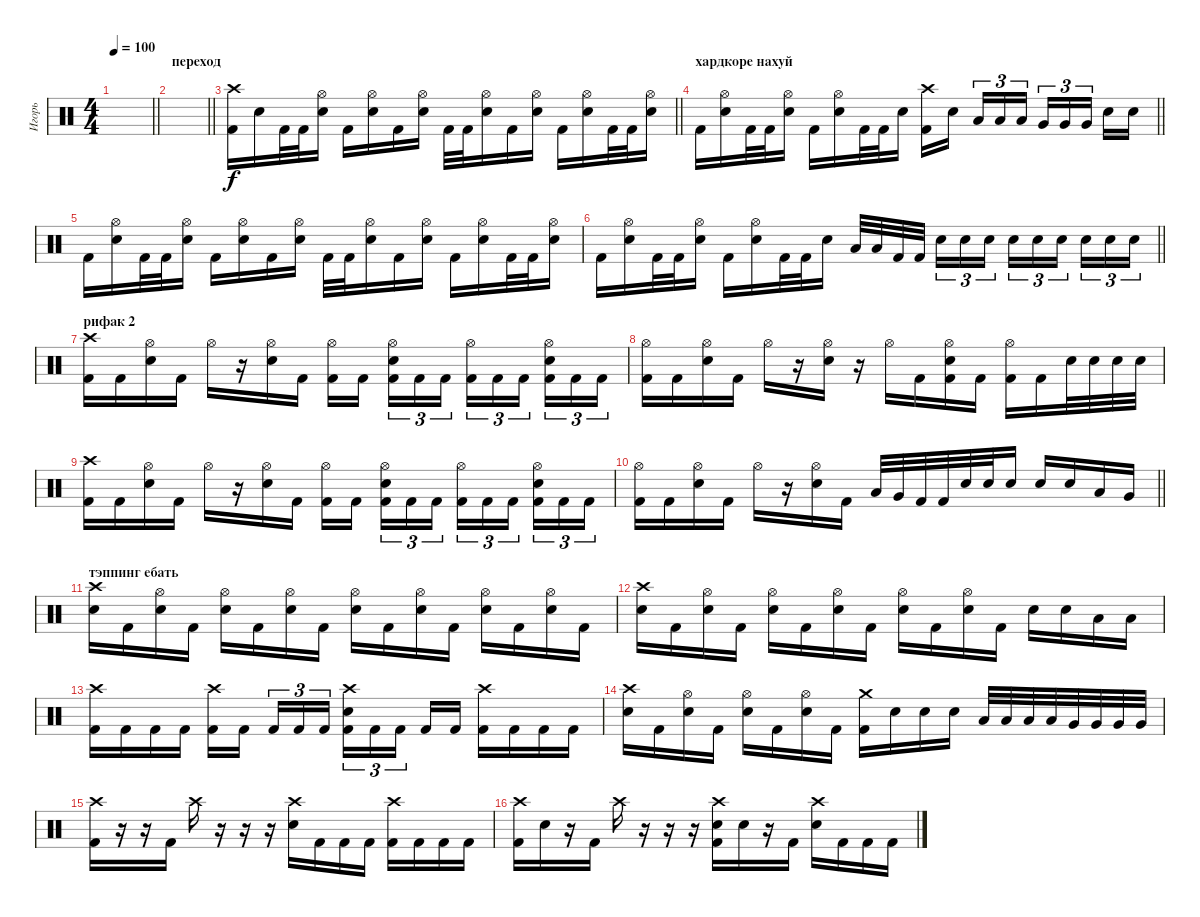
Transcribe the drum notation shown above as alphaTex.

\track ("Игорь" "Игорь") {instrument percussion}
\staff {score}
\articulation defaults
\ts (4 4)
\tempo 100
\clef neutral
\barLineRight lightlight
\ks c
|
\section ("" "переход")
\barLineRight lightlight
|
\barLineRight lightlight
("Crash high (hit)" "Kick (hit) 2").16 "Electric Snare (hit)".16 "Kick (hit) 2".32 "Kick (hit) 2".32 ("Hi-Hat (open)" "Electric Snare (hit)").16 "Kick (hit) 2".16 ("Hi-Hat (open)" "Electric Snare (hit)").16 "Kick (hit) 2".16 ("Hi-Hat (open)" "Electric Snare (hit)").16 "Kick (hit) 2".32 "Kick (hit) 2".32 ("Hi-Hat (open)" "Electric Snare (hit)").16 "Kick (hit) 2".16 ("Hi-Hat (open)" "Electric Snare (hit)").16 "Kick (hit) 2".16 ("Hi-Hat (open)" "Electric Snare (hit)").16 "Kick (hit) 2".32 "Kick (hit) 2".32 ("Hi-Hat (open)" "Electric Snare (hit)").16 |
\section ("" "хардкоре нахуй")
\barLineRight lightlight "Kick (hit) 2".16
("Hi-Hat (open)" "Electric Snare (hit)").16 "Kick (hit) 2".32 "Kick (hit) 2".32 ("Hi-Hat (open)" "Electric Snare (hit)").16 "Kick (hit) 2".16 ("Hi-Hat (open)" "Electric Snare (hit)").16 "Kick (hit) 2".32 "Kick (hit) 2".32 "Electric Snare (hit)".16 ("Crash high (hit)" "Kick (hit) 2").16 "Electric Snare (hit)".16{beam splitsecondary} "Low Tom (hit)".16{tu (3 2)} "Low Tom (hit)".16{tu (3 2)} "Low Tom (hit)".16{tu (3 2)} "Very Low Tom (hit)".16{tu (3 2)} "Very Low Tom (hit)".16{tu (3 2)} "Very Low Tom (hit)".16{tu (3 2) beam splitsecondary} "Electric Snare (hit)".16 "Electric Snare (hit)".16 |
"Kick (hit) 2".16 ("Hi-Hat (open)" "Electric Snare (hit)").16 "Kick (hit) 2".32 "Kick (hit) 2".32 ("Hi-Hat (open)" "Electric Snare (hit)").16 "Kick (hit) 2".16 ("Hi-Hat (open)" "Electric Snare (hit)").16 "Kick (hit) 2".16 ("Hi-Hat (open)" "Electric Snare (hit)").16 "Kick (hit) 2".32 "Kick (hit) 2".32 ("Hi-Hat (open)" "Electric Snare (hit)").16 "Kick (hit) 2".16 ("Hi-Hat (open)" "Electric Snare (hit)").16 "Kick (hit) 2".16 ("Hi-Hat (open)" "Electric Snare (hit)").16 "Kick (hit) 2".32 "Kick (hit) 2".32 ("Hi-Hat (open)" "Electric Snare (hit)").16 |
\barLineRight lightlight "Kick (hit) 2".16
("Hi-Hat (open)" "Electric Snare (hit)").16 "Kick (hit) 2".32 "Kick (hit) 2".32 ("Hi-Hat (open)" "Electric Snare (hit)").16 "Kick (hit) 2".16 ("Hi-Hat (open)" "Electric Snare (hit)").16 "Kick (hit) 2".32 "Kick (hit) 2".32 "Electric Snare (hit)".16 "Low Tom (hit)".32 "Low Tom (hit)".32 "Kick (hit) 2".32 "Kick (hit) 2".32{beam splitsecondary} "Electric Snare (hit)".16{tu (3 2)} "Electric Snare (hit)".16{tu (3 2)} "Electric Snare (hit)".16{tu (3 2)} "Electric Snare (hit)".16{tu (3 2)} "Electric Snare (hit)".16{tu (3 2)} "Electric Snare (hit)".16{tu (3 2) beam splitsecondary} "Electric Snare (hit)".16{tu (3 2)} "Electric Snare (hit)".16{tu (3 2)} "Electric Snare (hit)".16{tu (3 2)} |
\section ("" "рифак 2")
("Crash high (hit)" "Kick (hit) 2").16 "Kick (hit) 2".16 ("Hi-Hat (open)" "Electric Snare (hit)").16 "Kick (hit) 2".16 "Hi-Hat (open)".16 r.16 ("Hi-Hat (open)" "Electric Snare (hit)").16 "Kick (hit) 2".16 ("Hi-Hat (open)" "Kick (hit) 2").16 "Kick (hit) 2".16{beam splitsecondary} ("Hi-Hat (open)" "Electric Snare (hit)" "Kick (hit) 2").16{tu (3 2)} "Kick (hit) 2".16{tu (3 2)} "Kick (hit) 2".16{tu (3 2)} ("Hi-Hat (open)" "Kick (hit) 2").16{tu (3 2)} "Kick (hit) 2".16{tu (3 2)} "Kick (hit) 2".16{tu (3 2) beam splitsecondary} ("Hi-Hat (open)" "Electric Snare (hit)" "Kick (hit) 2").16{tu (3 2)} "Kick (hit) 2".16{tu (3 2)} "Kick (hit) 2".16{tu (3 2)} |
("Hi-Hat (open)" "Kick (hit) 2").16 "Kick (hit) 2".16 ("Hi-Hat (open)" "Electric Snare (hit)").16 "Kick (hit) 2".16 "Hi-Hat (open)".16 r.16 ("Hi-Hat (open)" "Electric Snare (hit)").16 r.16 "Hi-Hat (open)".16 "Kick (hit) 2".16 ("Hi-Hat (open)" "Electric Snare (hit)" "Kick (hit) 2").16 "Kick (hit) 2".16 ("Hi-Hat (open)" "Kick (hit) 2").16 "Kick (hit) 2".16 "Electric Snare (hit)".32 "Electric Snare (hit)".32 "Electric Snare (hit)".32 "Electric Snare (hit)".32 |
("Crash high (hit)" "Kick (hit) 2").16 "Kick (hit) 2".16 ("Hi-Hat (open)" "Electric Snare (hit)").16 "Kick (hit) 2".16 "Hi-Hat (open)".16 r.16 ("Hi-Hat (open)" "Electric Snare (hit)").16 "Kick (hit) 2".16 ("Hi-Hat (open)" "Kick (hit) 2").16 "Kick (hit) 2".16{beam splitsecondary} ("Hi-Hat (open)" "Electric Snare (hit)" "Kick (hit) 2").16{tu (3 2)} "Kick (hit) 2".16{tu (3 2)} "Kick (hit) 2".16{tu (3 2)} ("Hi-Hat (open)" "Kick (hit) 2").16{tu (3 2)} "Kick (hit) 2".16{tu (3 2)} "Kick (hit) 2".16{tu (3 2) beam splitsecondary} ("Hi-Hat (open)" "Electric Snare (hit)" "Kick (hit) 2").16{tu (3 2)} "Kick (hit) 2".16{tu (3 2)} "Kick (hit) 2".16{tu (3 2)} |
\barLineRight lightlight
("Hi-Hat (open)" "Kick (hit) 2").16 "Kick (hit) 2".16 ("Hi-Hat (open)" "Electric Snare (hit)").16 "Kick (hit) 2".16 "Hi-Hat (open)".16 r.16 ("Hi-Hat (open)" "Electric Snare (hit)").16 "Kick (hit) 2".16 "Low Tom (hit)".32 "Very Low Tom (hit)".32 "Kick (hit) 2".32 "Kick (hit) 2".32 "Electric Snare (hit)".32 "Electric Snare (hit)".32 "Electric Snare (hit)".16 "Electric Snare (hit)".16 "Electric Snare (hit)".16 "Low Tom (hit)".16 "Very Low Tom (hit)".16 |
\section ("" "тэппинг ебать")
("Crash high (hit)" "Electric Snare (hit)").16 "Kick (hit) 2".16 ("Hi-Hat (open)" "Electric Snare (hit)").16 "Kick (hit) 2".16 ("Hi-Hat (open)" "Electric Snare (hit)").16 "Kick (hit) 2".16 ("Hi-Hat (open)" "Electric Snare (hit)").16 "Kick (hit) 2".16 ("Hi-Hat (open)" "Electric Snare (hit)").16 "Kick (hit) 2".16 ("Hi-Hat (open)" "Electric Snare (hit)").16 "Kick (hit) 2".16 ("Hi-Hat (open)" "Electric Snare (hit)").16 "Kick (hit) 2".16 ("Hi-Hat (open)" "Electric Snare (hit)").16 "Kick (hit) 2".16 |
("Crash high (hit)" "Electric Snare (hit)").16 "Kick (hit) 2".16 ("Hi-Hat (open)" "Electric Snare (hit)").16 "Kick (hit) 2".16 ("Hi-Hat (open)" "Electric Snare (hit)").16 "Kick (hit) 2".16 ("Hi-Hat (open)" "Electric Snare (hit)").16 "Kick (hit) 2".16 ("Hi-Hat (open)" "Electric Snare (hit)").16 "Kick (hit) 2".16 ("Hi-Hat (open)" "Electric Snare (hit)").16 "Kick (hit) 2".16 "Electric Snare (hit)".16 "Electric Snare (hit)".16 "Low Tom (hit)".16 "Low Tom (hit)".16 |
("Crash high (hit)" "Kick (hit) 2").16 "Kick (hit) 2".16 "Kick (hit) 2".16 "Kick (hit) 2".16 ("Crash high (hit)" "Kick (hit) 2").16 "Kick (hit) 2".16{beam splitsecondary} "Kick (hit) 2".16{tu (3 2)} "Kick (hit) 2".16{tu (3 2)} "Kick (hit) 2".16{tu (3 2)} ("Crash high (hit)" "Electric Snare (hit)" "Kick (hit) 2").16{tu (3 2)} "Kick (hit) 2".16{tu (3 2)} "Kick (hit) 2".16{tu (3 2) beam splitsecondary} "Kick (hit) 2".16 "Kick (hit) 2".16 ("Crash high (hit)" "Kick (hit) 2").16 "Kick (hit) 2".16 "Kick (hit) 2".16 "Kick (hit) 2".16 |
("Crash high (hit)" "Electric Snare (hit)").16 "Kick (hit) 2".16 ("Hi-Hat (open)" "Electric Snare (hit)").16 "Kick (hit) 2".16 ("Hi-Hat (open)" "Electric Snare (hit)").16 "Kick (hit) 2".16 ("Hi-Hat (open)" "Electric Snare (hit)").16 "Kick (hit) 2".16 ("Crash medium (hit)" "Kick (hit) 2").16 "Electric Snare (hit)".16 "Electric Snare (hit)".16 "Electric Snare (hit)".16 "Low Tom (hit)".32 "Low Tom (hit)".32 "Low Tom (hit)".32 "Low Tom (hit)".32 "Very Low Tom (hit)".32 "Very Low Tom (hit)".32 "Very Low Tom (hit)".32 "Very Low Tom (hit)".32 |
("Crash high (hit)" "Kick (hit) 2").16 r.16 r.16 "Kick (hit) 2".16 "Crash high (hit)".16 r.16 r.16 r.16 ("Crash high (hit)" "Electric Snare (hit)").16 "Kick (hit) 2".16 "Kick (hit) 2".16 "Kick (hit) 2".16 ("Crash high (hit)" "Kick (hit) 2").16 "Kick (hit) 2".16 "Kick (hit) 2".16 "Kick (hit) 2".16 |
("Crash high (hit)" "Kick (hit) 2").16 "Electric Snare (hit)".16 r.16 "Kick (hit) 2".16 "Crash high (hit)".16 r.16 r.16 r.16 ("Crash high (hit)" "Electric Snare (hit)" "Kick (hit) 2").16 "Electric Snare (hit)".16 r.16 "Kick (hit) 2".16 ("Crash high (hit)" "Electric Snare (hit)").16 "Kick (hit) 2".16 "Kick (hit) 2".16 "Kick (hit) 2".16
